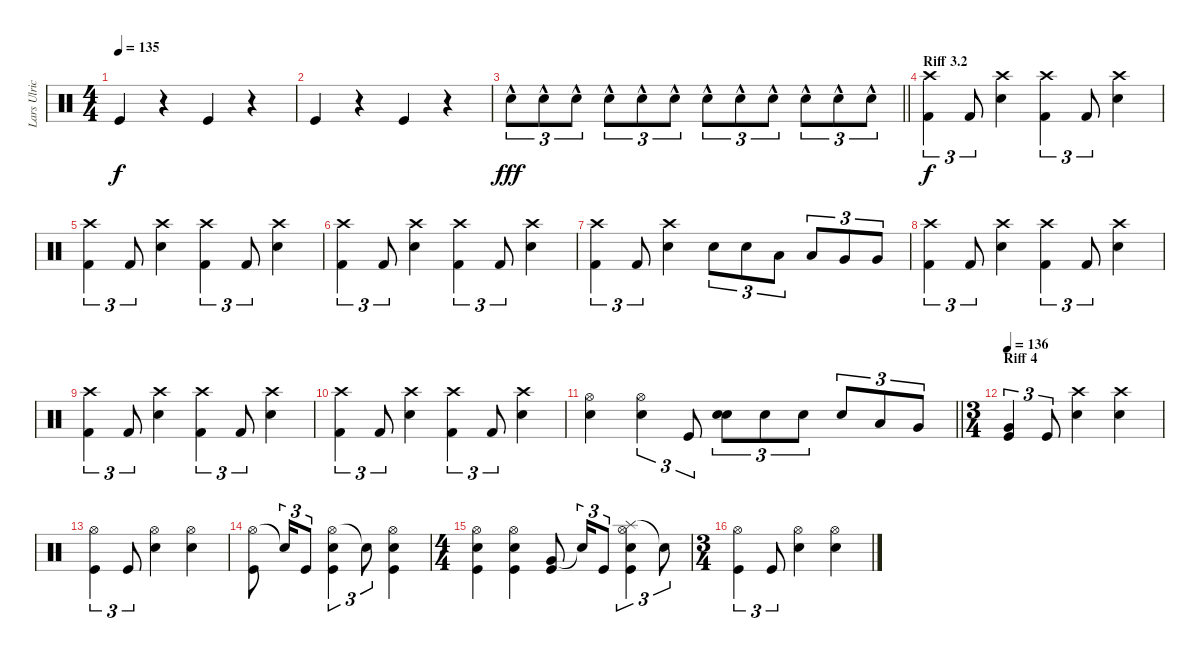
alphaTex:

\track ("Lars Ulrich" "Lars Ulric") {instrument percussion}
\staff {score}
\articulation defaults
\ts (4 4)
\tempo 135
\clef neutral
\ks c "Kick (hit)".4{dy f}
r.4 "Kick (hit)".4 r.4 |
"Kick (hit)".4 r.4 "Kick (hit)".4 r.4 |
\barLineRight lightlight "Snare (hit) 2"{hac}.8{tu (3 2) dy fff} "Snare (hit) 2"{hac}.8{tu (3 2)} "Snare (hit) 2"{hac}.8{tu (3 2)} "Snare (hit) 2"{hac}.8{tu (3 2)} "Snare (hit) 2"{hac}.8{tu (3 2)} "Snare (hit) 2"{hac}.8{tu (3 2)} "Snare (hit) 2"{hac}.8{tu (3 2)} "Snare (hit) 2"{hac}.8{tu (3 2)} "Snare (hit) 2"{hac}.8{tu (3 2)} "Snare (hit) 2"{hac}.8{tu (3 2)} "Snare (hit) 2"{hac}.8{tu (3 2)} "Snare (hit) 2"{hac}.8{tu (3 2)}
|
\section ("" "Riff 3.2")
("Crash high (hit)" "Kick (hit) 2").4{tu (3 2) dy f} "Kick (hit) 2".8{tu (3 2)} ("Crash high (hit)" "Snare (hit) 2").4 ("Crash high (hit)" "Kick (hit) 2").4{tu (3 2)} "Kick (hit) 2".8{tu (3 2)} ("Crash high (hit)" "Snare (hit) 2").4 |
("Crash high (hit)" "Kick (hit) 2").4{tu (3 2)} "Kick (hit) 2".8{tu (3 2)} ("Crash high (hit)" "Snare (hit) 2").4 ("Crash high (hit)" "Kick (hit) 2").4{tu (3 2)} "Kick (hit) 2".8{tu (3 2)} ("Crash high (hit)" "Snare (hit) 2").4 |
("Crash high (hit)" "Kick (hit) 2").4{tu (3 2)} "Kick (hit) 2".8{tu (3 2)} ("Crash high (hit)" "Snare (hit) 2").4 ("Crash high (hit)" "Kick (hit) 2").4{tu (3 2)} "Kick (hit) 2".8{tu (3 2)} ("Crash high (hit)" "Snare (hit) 2").4 |
("Crash high (hit)" "Kick (hit) 2").4{tu (3 2)} "Kick (hit) 2".8{tu (3 2)} ("Crash high (hit)" "Snare (hit) 2").4 "Snare (hit) 2".8{tu (3 2)} "Snare (hit) 2".8{tu (3 2)} "Low Tom (hit)".8{tu (3 2)} "Low Tom (hit)".8{tu (3 2)} "Very Low Tom (hit)".8{tu (3 2)} "Very Low Tom (hit)".8{tu (3 2)} |
("Crash high (hit)" "Kick (hit) 2").4{tu (3 2)} "Kick (hit) 2".8{tu (3 2)} ("Crash high (hit)" "Electric Snare (hit)").4 ("Crash high (hit)" "Kick (hit) 2").4{tu (3 2)} "Kick (hit) 2".8{tu (3 2)} ("Crash high (hit)" "Electric Snare (hit)").4 |
("Crash high (hit)" "Kick (hit) 2").4{tu (3 2)} "Kick (hit) 2".8{tu (3 2)} ("Crash high (hit)" "Snare (hit) 2").4 ("Crash high (hit)" "Kick (hit) 2").4{tu (3 2)} "Kick (hit) 2".8{tu (3 2)} ("Crash high (hit)" "Snare (hit) 2").4 |
("Crash high (hit)" "Kick (hit) 2").4{tu (3 2)} "Kick (hit) 2".8{tu (3 2)} ("Crash high (hit)" "Snare (hit) 2").4 ("Crash high (hit)" "Kick (hit) 2").4{tu (3 2)} "Kick (hit) 2".8{tu (3 2)} ("Crash high (hit)" "Snare (hit) 2").4 |
\barLineRight lightlight
("Hi-Hat (open)" "Snare (hit) 2").4 ("Hi-Hat (open)" "Snare (hit) 2").4{tu (3 2)} "Kick (hit)".8{tu (3 2)} ("Snare (hit) 2" "Snare (hit) 2").8{tu (3 2) bd 240} "Snare (hit) 2".8{tu (3 2)} "Snare (hit) 2".8{tu (3 2)} "Snare (hit) 2".8{tu (3 2)} "Low Tom (hit)".8{tu (3 2)} "Very Low Tom (hit)".8{tu (3 2)} |
\ts (3 4)
\section ("" "Riff 4")
\tempo 136
("Very Low Tom (hit)" "Kick (hit)").4{tu (3 2)} "Kick (hit)".8{tu (3 2)} ("Crash high (hit)" "Snare (hit) 2").4 ("Crash high (hit)" "Snare (hit) 2").4 |
("Hi-Hat (open)" "Kick (hit)").4{tu (3 2)} "Kick (hit)".8{tu (3 2)} ("Hi-Hat (open)" "Snare (hit) 2").4 ("Hi-Hat (open)" "Snare (hit) 2").4 |
("Hi-Hat (open)" "Kick (hit)").8 "Snare (hit)"{t}.16{tu (3 2)} "Kick (hit)".8{tu (3 2)} ("Hi-Hat (open)" "Snare (hit) 2" "Kick (hit)").4{tu (3 2)} "Snare (hit)"{t}.8{tu (3 2)} ("Hi-Hat (open)" "Snare (hit) 2" "Kick (hit)").4 |
\ts (4 4)
("Hi-Hat (open)" "Snare (hit) 2" "Kick (hit)").4 ("Hi-Hat (open)" "Snare (hit) 2" "Kick (hit)").4 ("Very Low Tom (hit)" "Kick (hit)").8 "Snare (hit)"{t}.16{tu (3 2)} "Kick (hit)".8{tu (3 2)} ("Splash (hit)" "Hi-Hat (open)" "Snare (hit) 2" "Kick (hit)").4{tu (3 2)} "Snare (hit)"{t}.8{tu (3 2)} |
\ts (3 4)
("Hi-Hat (open)" "Kick (hit)").4{tu (3 2)} "Kick (hit)".8{tu (3 2)} ("Hi-Hat (open)" "Snare (hit) 2").4 ("Hi-Hat (open)" "Snare (hit) 2").4
